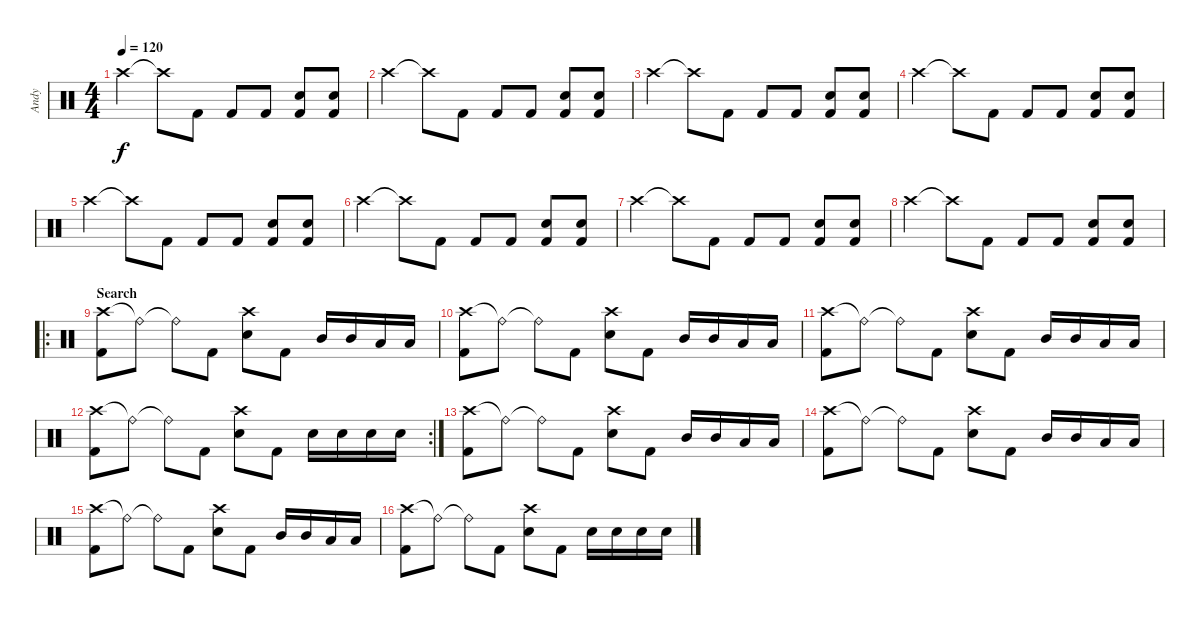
\track ("Andy" "Andy") {instrument percussion}
\staff {score}
\articulation defaults
\ts (4 4)
\tempo 120
\clef neutral
\ks c "Crash high (hit)".4{dy f} "Crash high (hit)"{t}.8 "Kick (hit) 2".8 "Kick (hit) 2".8 "Kick (hit) 2".8
("Snare (hit) 2" "Kick (hit) 2").8 ("Snare (hit) 2" "Kick (hit) 2").8 |
"Crash high (hit)".4 "Crash high (hit)"{t}.8 "Kick (hit) 2".8 "Kick (hit) 2".8 "Kick (hit) 2".8 ("Snare (hit) 2" "Kick (hit) 2").8 ("Snare (hit) 2" "Kick (hit) 2").8 |
"Crash high (hit)".4 "Crash high (hit)"{t}.8 "Kick (hit) 2".8 "Kick (hit) 2".8 "Kick (hit) 2".8 ("Snare (hit) 2" "Kick (hit) 2").8 ("Snare (hit) 2" "Kick (hit) 2").8 |
"Crash high (hit)".4 "Crash high (hit)"{t}.8 "Kick (hit) 2".8 "Kick (hit) 2".8 "Kick (hit) 2".8 ("Snare (hit) 2" "Kick (hit) 2").8 ("Snare (hit) 2" "Kick (hit) 2").8 |
"Crash high (hit)".4 "Crash high (hit)"{t}.8 "Kick (hit) 2".8 "Kick (hit) 2".8 "Kick (hit) 2".8 ("Snare (hit) 2" "Kick (hit) 2").8 ("Snare (hit) 2" "Kick (hit) 2").8 |
"Crash high (hit)".4 "Crash high (hit)"{t}.8 "Kick (hit) 2".8 "Kick (hit) 2".8 "Kick (hit) 2".8 ("Snare (hit) 2" "Kick (hit) 2").8 ("Snare (hit) 2" "Kick (hit) 2").8 |
"Crash high (hit)".4 "Crash high (hit)"{t}.8 "Kick (hit) 2".8 "Kick (hit) 2".8 "Kick (hit) 2".8 ("Snare (hit) 2" "Kick (hit) 2").8 ("Snare (hit) 2" "Kick (hit) 2").8 |
"Crash high (hit)".4 "Crash high (hit)"{t}.8 "Kick (hit) 2".8 "Kick (hit) 2".8 "Kick (hit) 2".8 ("Snare (hit) 2" "Kick (hit) 2").8 ("Snare (hit) 2" "Kick (hit) 2").8 |
\ro
\section ("" "Search")
("Crash high (hit)" "Kick (hit) 2").8 "Ride (bell)"{t}.8 "Ride (bell)"{t}.8 "Kick (hit) 2".8 ("Crash high (hit)" "Snare (hit) 2").8 "Kick (hit) 2".8 "Mid Tom (hit)".16 "Mid Tom (hit)".16 "Low Tom (hit)".16 "Low Tom (hit)".16 |
("Crash high (hit)" "Kick (hit) 2").8 "Ride (bell)"{t}.8 "Ride (bell)"{t}.8 "Kick (hit) 2".8 ("Crash high (hit)" "Snare (hit) 2").8 "Kick (hit) 2".8 "Mid Tom (hit)".16 "Mid Tom (hit)".16 "Low Tom (hit)".16 "Low Tom (hit)".16 |
("Crash high (hit)" "Kick (hit) 2").8 "Ride (bell)"{t}.8 "Ride (bell)"{t}.8 "Kick (hit) 2".8 ("Crash high (hit)" "Snare (hit) 2").8 "Kick (hit) 2".8 "Mid Tom (hit)".16 "Mid Tom (hit)".16 "Low Tom (hit)".16 "Low Tom (hit)".16 |
\rc 2
("Crash high (hit)" "Kick (hit) 2").8 "Ride (bell)"{t}.8 "Ride (bell)"{t}.8 "Kick (hit) 2".8 ("Crash high (hit)" "Snare (hit) 2").8 "Kick (hit) 2".8 "Snare (hit) 2".16 "Snare (hit) 2".16 "Snare (hit) 2".16 "Snare (hit) 2".16 |
("Crash high (hit)" "Kick (hit) 2").8 "Ride (bell)"{t}.8 "Ride (bell)"{t}.8 "Kick (hit) 2".8 ("Crash high (hit)" "Snare (hit) 2").8 "Kick (hit) 2".8 "Mid Tom (hit)".16 "Mid Tom (hit)".16 "Low Tom (hit)".16 "Low Tom (hit)".16 |
("Crash high (hit)" "Kick (hit) 2").8 "Ride (bell)"{t}.8 "Ride (bell)"{t}.8 "Kick (hit) 2".8 ("Crash high (hit)" "Snare (hit) 2").8 "Kick (hit) 2".8 "Mid Tom (hit)".16 "Mid Tom (hit)".16 "Low Tom (hit)".16 "Low Tom (hit)".16 |
("Crash high (hit)" "Kick (hit) 2").8 "Ride (bell)"{t}.8 "Ride (bell)"{t}.8 "Kick (hit) 2".8 ("Crash high (hit)" "Snare (hit) 2").8 "Kick (hit) 2".8 "Mid Tom (hit)".16 "Mid Tom (hit)".16 "Low Tom (hit)".16 "Low Tom (hit)".16 |
("Crash high (hit)" "Kick (hit) 2").8 "Ride (bell)"{t}.8 "Ride (bell)"{t}.8 "Kick (hit) 2".8 ("Crash high (hit)" "Snare (hit) 2").8 "Kick (hit) 2".8 "Snare (hit) 2".16 "Snare (hit) 2".16 "Snare (hit) 2".16 "Snare (hit) 2".16
